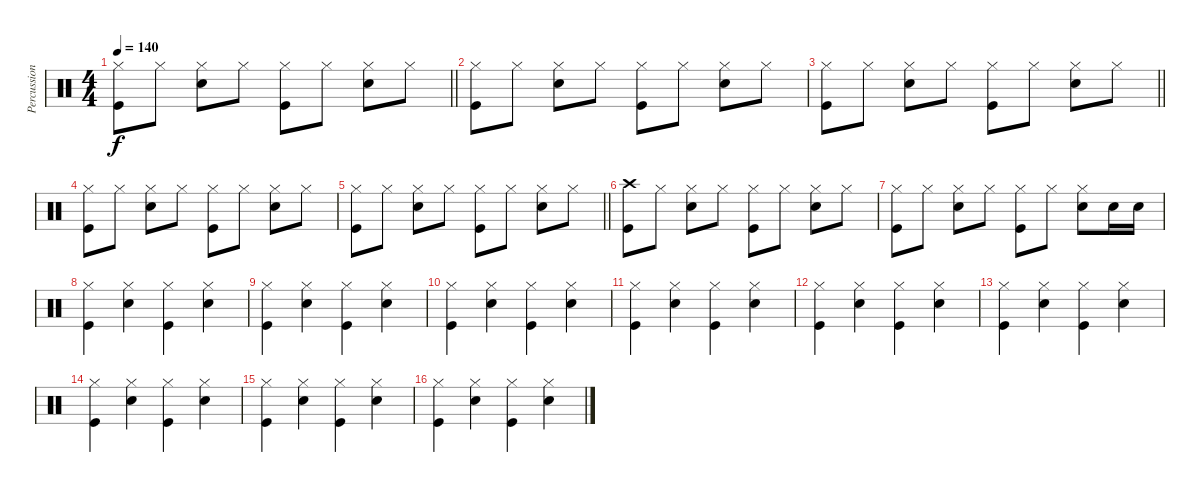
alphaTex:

\track ("Percussion" "Percussion") {instrument percussion}
\staff {score}
\articulation defaults
\ts (4 4)
\tempo 140
\clef neutral
\barLineRight lightlight
\ks c
("Hi-Hat (closed)" "Kick (hit)").8{dy f} "Hi-Hat (closed)".8 ("Snare (hit) 2" "Hi-Hat (closed)").8 "Hi-Hat (closed)".8 ("Kick (hit)" "Hi-Hat (closed)").8 "Hi-Hat (closed)".8 ("Hi-Hat (closed)" "Snare (hit) 2").8 "Hi-Hat (closed)".8 |
("Hi-Hat (closed)" "Kick (hit)").8 "Hi-Hat (closed)".8 ("Snare (hit) 2" "Hi-Hat (closed)").8 "Hi-Hat (closed)".8 ("Kick (hit)" "Hi-Hat (closed)").8 "Hi-Hat (closed)".8 ("Hi-Hat (closed)" "Snare (hit) 2").8 "Hi-Hat (closed)".8 |
\barLineRight lightlight
("Hi-Hat (closed)" "Kick (hit)").8 "Hi-Hat (closed)".8 ("Snare (hit) 2" "Hi-Hat (closed)").8 "Hi-Hat (closed)".8 ("Kick (hit)" "Hi-Hat (closed)").8 "Hi-Hat (closed)".8 ("Hi-Hat (closed)" "Snare (hit) 2").8 "Hi-Hat (closed)".8 |
("Hi-Hat (closed)" "Kick (hit)").8 "Hi-Hat (closed)".8 ("Snare (hit) 2" "Hi-Hat (closed)").8 "Hi-Hat (closed)".8 ("Kick (hit)" "Hi-Hat (closed)").8 "Hi-Hat (closed)".8 ("Hi-Hat (closed)" "Snare (hit) 2").8 "Hi-Hat (closed)".8 |
\barLineRight lightlight
("Hi-Hat (closed)" "Kick (hit)").8 "Hi-Hat (closed)".8 ("Snare (hit) 2" "Hi-Hat (closed)").8 "Hi-Hat (closed)".8 ("Kick (hit)" "Hi-Hat (closed)").8 "Hi-Hat (closed)".8 ("Hi-Hat (closed)" "Snare (hit) 2").8 "Hi-Hat (closed)".8 |
("Crash high (hit)" "Kick (hit)").8 "Hi-Hat (closed)".8 ("Snare (hit) 2" "Hi-Hat (closed)").8 "Hi-Hat (closed)".8 ("Kick (hit)" "Hi-Hat (closed)").8 "Hi-Hat (closed)".8 ("Hi-Hat (closed)" "Snare (hit) 2").8 "Hi-Hat (closed)".8 |
("Hi-Hat (closed)" "Kick (hit)").8 "Hi-Hat (closed)".8 ("Snare (hit) 2" "Hi-Hat (closed)").8 "Hi-Hat (closed)".8 ("Kick (hit)" "Hi-Hat (closed)").8 "Hi-Hat (closed)".8 ("Hi-Hat (closed)" "Snare (hit) 2").8 "Snare (hit) 2".16 "Snare (hit) 2".16 |
("Kick (hit)" "Hi-Hat (closed)").4 ("Hi-Hat (closed)" "Snare (hit) 2").4 ("Kick (hit)" "Hi-Hat (closed)").4 ("Snare (hit) 2" "Hi-Hat (closed)").4 |
("Kick (hit)" "Hi-Hat (closed)").4 ("Hi-Hat (closed)" "Snare (hit) 2").4 ("Kick (hit)" "Hi-Hat (closed)").4 ("Snare (hit) 2" "Hi-Hat (closed)").4 |
("Kick (hit)" "Hi-Hat (closed)").4 ("Hi-Hat (closed)" "Snare (hit) 2").4 ("Kick (hit)" "Hi-Hat (closed)").4 ("Snare (hit) 2" "Hi-Hat (closed)").4 |
("Kick (hit)" "Hi-Hat (closed)").4 ("Hi-Hat (closed)" "Snare (hit) 2").4 ("Kick (hit)" "Hi-Hat (closed)").4 ("Snare (hit) 2" "Hi-Hat (closed)").4 |
("Kick (hit)" "Hi-Hat (closed)").4 ("Hi-Hat (closed)" "Snare (hit) 2").4 ("Kick (hit)" "Hi-Hat (closed)").4 ("Snare (hit) 2" "Hi-Hat (closed)").4 |
("Kick (hit)" "Hi-Hat (closed)").4 ("Hi-Hat (closed)" "Snare (hit) 2").4 ("Kick (hit)" "Hi-Hat (closed)").4 ("Snare (hit) 2" "Hi-Hat (closed)").4 |
("Kick (hit)" "Hi-Hat (closed)").4 ("Hi-Hat (closed)" "Snare (hit) 2").4 ("Kick (hit)" "Hi-Hat (closed)").4 ("Snare (hit) 2" "Hi-Hat (closed)").4 |
("Kick (hit)" "Hi-Hat (closed)").4 ("Hi-Hat (closed)" "Snare (hit) 2").4 ("Kick (hit)" "Hi-Hat (closed)").4 ("Snare (hit) 2" "Hi-Hat (closed)").4 |
("Kick (hit)" "Hi-Hat (closed)").4 ("Hi-Hat (closed)" "Snare (hit) 2").4 ("Kick (hit)" "Hi-Hat (closed)").4 ("Snare (hit) 2" "Hi-Hat (closed)").4
